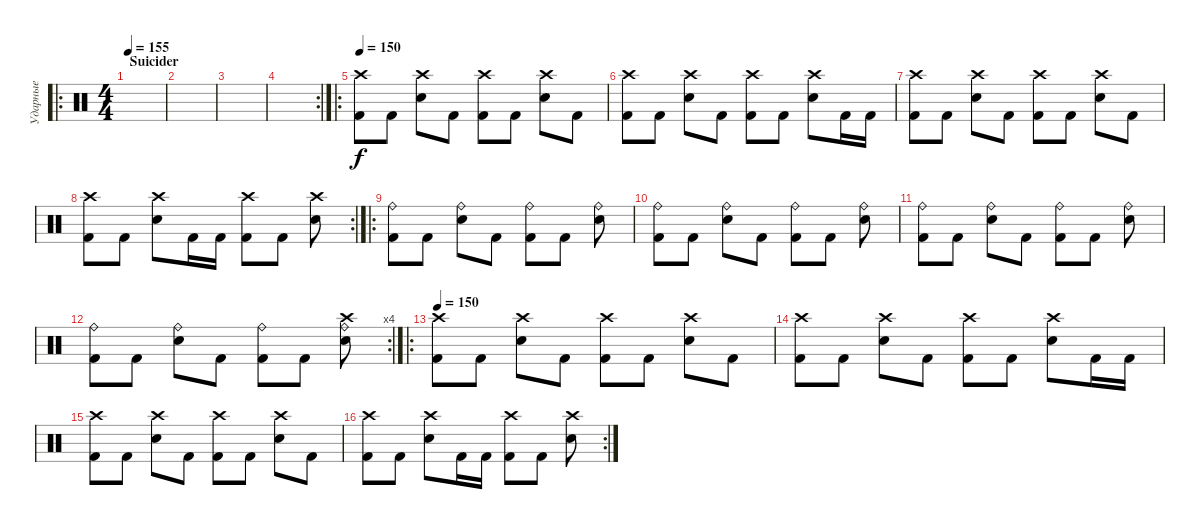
\track ("Ударные" "Ударные") {instrument percussion}
\staff {score}
\articulation defaults
\ro
\ts (4 4)
\section ("" "Suicider")
\tempo 155
\clef neutral
\ks c
|
|
|
\rc 2
|
\ro
\tempo 150
("Crash high (hit)" "Kick (hit) 2").8 "Kick (hit) 2".8 ("Crash high (hit)" "Snare (hit) 2").8 "Kick (hit) 2".8 ("Crash high (hit)" "Kick (hit) 2").8 "Kick (hit) 2".8 ("Crash high (hit)" "Snare (hit) 2").8 "Kick (hit) 2".8 |
("Crash high (hit)" "Kick (hit) 2").8 "Kick (hit) 2".8 ("Crash high (hit)" "Snare (hit) 2").8 "Kick (hit) 2".8 ("Crash high (hit)" "Kick (hit) 2").8 "Kick (hit) 2".8 ("Crash high (hit)" "Snare (hit) 2").8 "Kick (hit) 2".16 "Kick (hit) 2".16 |
("Crash high (hit)" "Kick (hit) 2").8 "Kick (hit) 2".8 ("Crash high (hit)" "Snare (hit) 2").8 "Kick (hit) 2".8 ("Crash high (hit)" "Kick (hit) 2").8 "Kick (hit) 2".8 ("Crash high (hit)" "Snare (hit) 2").8 "Kick (hit) 2".8 |
\rc 2
("Crash high (hit)" "Kick (hit) 2").8 "Kick (hit) 2".8 ("Crash high (hit)" "Snare (hit) 2").8 "Kick (hit) 2".16 "Kick (hit) 2".16 ("Crash high (hit)" "Kick (hit) 2").8 "Kick (hit) 2".8 ("Crash high (hit)" "Snare (hit) 2").8 |
\ro
("Ride (bell)" "Kick (hit) 2").8 "Kick (hit) 2".8 ("Ride (bell)" "Snare (hit) 2").8 "Kick (hit) 2".8 ("Ride (bell)" "Kick (hit) 2").8 "Kick (hit) 2".8 ("Ride (bell)" "Snare (hit) 2").8 |
("Ride (bell)" "Kick (hit) 2").8 "Kick (hit) 2".8 ("Ride (bell)" "Snare (hit) 2").8 "Kick (hit) 2".8 ("Ride (bell)" "Kick (hit) 2").8 "Kick (hit) 2".8 ("Ride (bell)" "Snare (hit) 2").8 |
("Ride (bell)" "Kick (hit) 2").8 "Kick (hit) 2".8 ("Ride (bell)" "Snare (hit) 2").8 "Kick (hit) 2".8 ("Ride (bell)" "Kick (hit) 2").8 "Kick (hit) 2".8 ("Ride (bell)" "Snare (hit) 2").8 |
\rc 4
("Ride (bell)" "Kick (hit) 2").8 "Kick (hit) 2".8 ("Ride (bell)" "Snare (hit) 2").8 "Kick (hit) 2".8 ("Ride (bell)" "Kick (hit) 2").8 "Kick (hit) 2".8 ("Crash high (hit)" "Ride (bell)" "Snare (hit) 2").8 |
\ro
\tempo 150
("Crash high (hit)" "Kick (hit) 2").8 "Kick (hit) 2".8 ("Crash high (hit)" "Snare (hit) 2").8 "Kick (hit) 2".8 ("Crash high (hit)" "Kick (hit) 2").8 "Kick (hit) 2".8 ("Crash high (hit)" "Snare (hit) 2").8 "Kick (hit) 2".8 |
("Crash high (hit)" "Kick (hit) 2").8 "Kick (hit) 2".8 ("Crash high (hit)" "Snare (hit) 2").8 "Kick (hit) 2".8 ("Crash high (hit)" "Kick (hit) 2").8 "Kick (hit) 2".8 ("Crash high (hit)" "Snare (hit) 2").8 "Kick (hit) 2".16 "Kick (hit) 2".16 |
("Crash high (hit)" "Kick (hit) 2").8 "Kick (hit) 2".8 ("Crash high (hit)" "Snare (hit) 2").8 "Kick (hit) 2".8 ("Crash high (hit)" "Kick (hit) 2").8 "Kick (hit) 2".8 ("Crash high (hit)" "Snare (hit) 2").8 "Kick (hit) 2".8 |
\rc 2
("Crash high (hit)" "Kick (hit) 2").8 "Kick (hit) 2".8 ("Crash high (hit)" "Snare (hit) 2").8 "Kick (hit) 2".16 "Kick (hit) 2".16 ("Crash high (hit)" "Kick (hit) 2").8 "Kick (hit) 2".8 ("Crash high (hit)" "Snare (hit) 2").8
